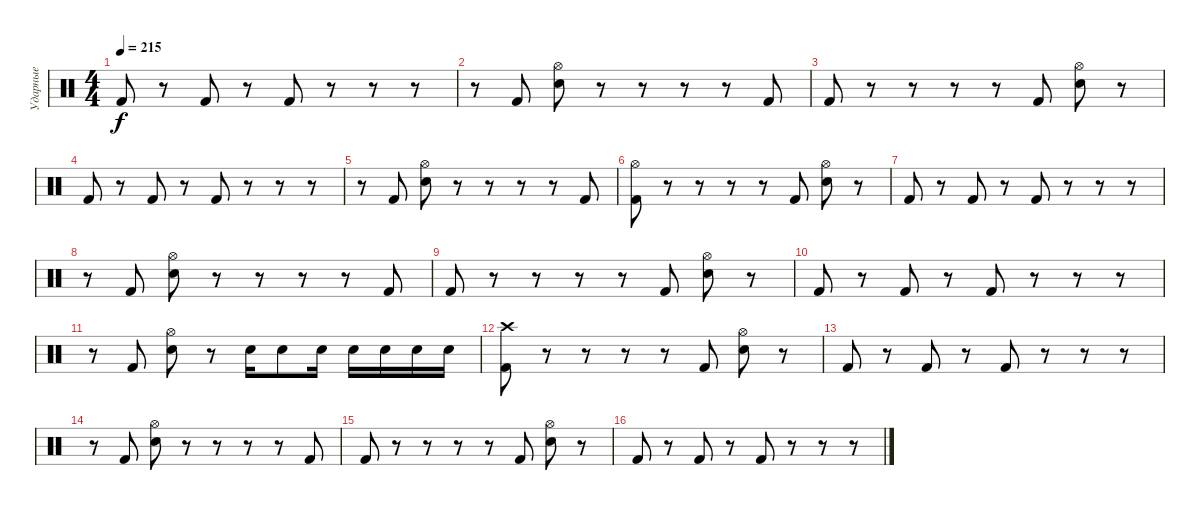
\track ("Ударные" "Ударные") {instrument percussion}
\staff {score}
\articulation defaults
\ts (4 4)
\tempo 215
\clef neutral
\ks c "Kick (hit) 2".8{dy f}
r.8 "Kick (hit) 2".8 r.8 "Kick (hit) 2".8 r.8 r.8 r.8 |
r.8 "Kick (hit) 2".8 ("Hi-Hat (open)" "Snare (hit) 2").8 r.8 r.8 r.8 r.8 "Kick (hit) 2".8 |
"Kick (hit) 2".8 r.8 r.8 r.8 r.8 "Kick (hit) 2".8 ("Hi-Hat (open)" "Snare (hit) 2").8 r.8 |
"Kick (hit) 2".8 r.8 "Kick (hit) 2".8 r.8 "Kick (hit) 2".8 r.8 r.8 r.8 |
r.8 "Kick (hit) 2".8 ("Hi-Hat (open)" "Snare (hit) 2").8 r.8 r.8 r.8 r.8 "Kick (hit) 2".8 |
("Hi-Hat (open)" "Kick (hit) 2").8 r.8 r.8 r.8 r.8 "Kick (hit) 2".8 ("Hi-Hat (open)" "Snare (hit) 2").8 r.8 |
"Kick (hit) 2".8 r.8 "Kick (hit) 2".8 r.8 "Kick (hit) 2".8 r.8 r.8 r.8 |
r.8 "Kick (hit) 2".8 ("Hi-Hat (open)" "Snare (hit) 2").8 r.8 r.8 r.8 r.8 "Kick (hit) 2".8 |
"Kick (hit) 2".8 r.8 r.8 r.8 r.8 "Kick (hit) 2".8 ("Hi-Hat (open)" "Snare (hit) 2").8 r.8 |
"Kick (hit) 2".8 r.8 "Kick (hit) 2".8 r.8 "Kick (hit) 2".8 r.8 r.8 r.8 |
r.8 "Kick (hit) 2".8 ("Hi-Hat (open)" "Snare (hit) 2").8 r.8 "Snare (hit) 2".16 "Snare (hit) 2".8 "Snare (hit) 2".16 "Snare (hit) 2".16 "Snare (hit) 2".16 "Snare (hit) 2".16 "Snare (hit) 2".16 |
("Crash high (hit)" "Kick (hit) 2").8 r.8 r.8 r.8 r.8 "Kick (hit) 2".8 ("Hi-Hat (open)" "Snare (hit) 2").8 r.8 |
"Kick (hit) 2".8 r.8 "Kick (hit) 2".8 r.8 "Kick (hit) 2".8 r.8 r.8 r.8 |
r.8 "Kick (hit) 2".8 ("Hi-Hat (open)" "Snare (hit) 2").8 r.8 r.8 r.8 r.8 "Kick (hit) 2".8 |
"Kick (hit) 2".8 r.8 r.8 r.8 r.8 "Kick (hit) 2".8 ("Hi-Hat (open)" "Snare (hit) 2").8 r.8 |
"Kick (hit) 2".8 r.8 "Kick (hit) 2".8 r.8 "Kick (hit) 2".8 r.8 r.8 r.8
